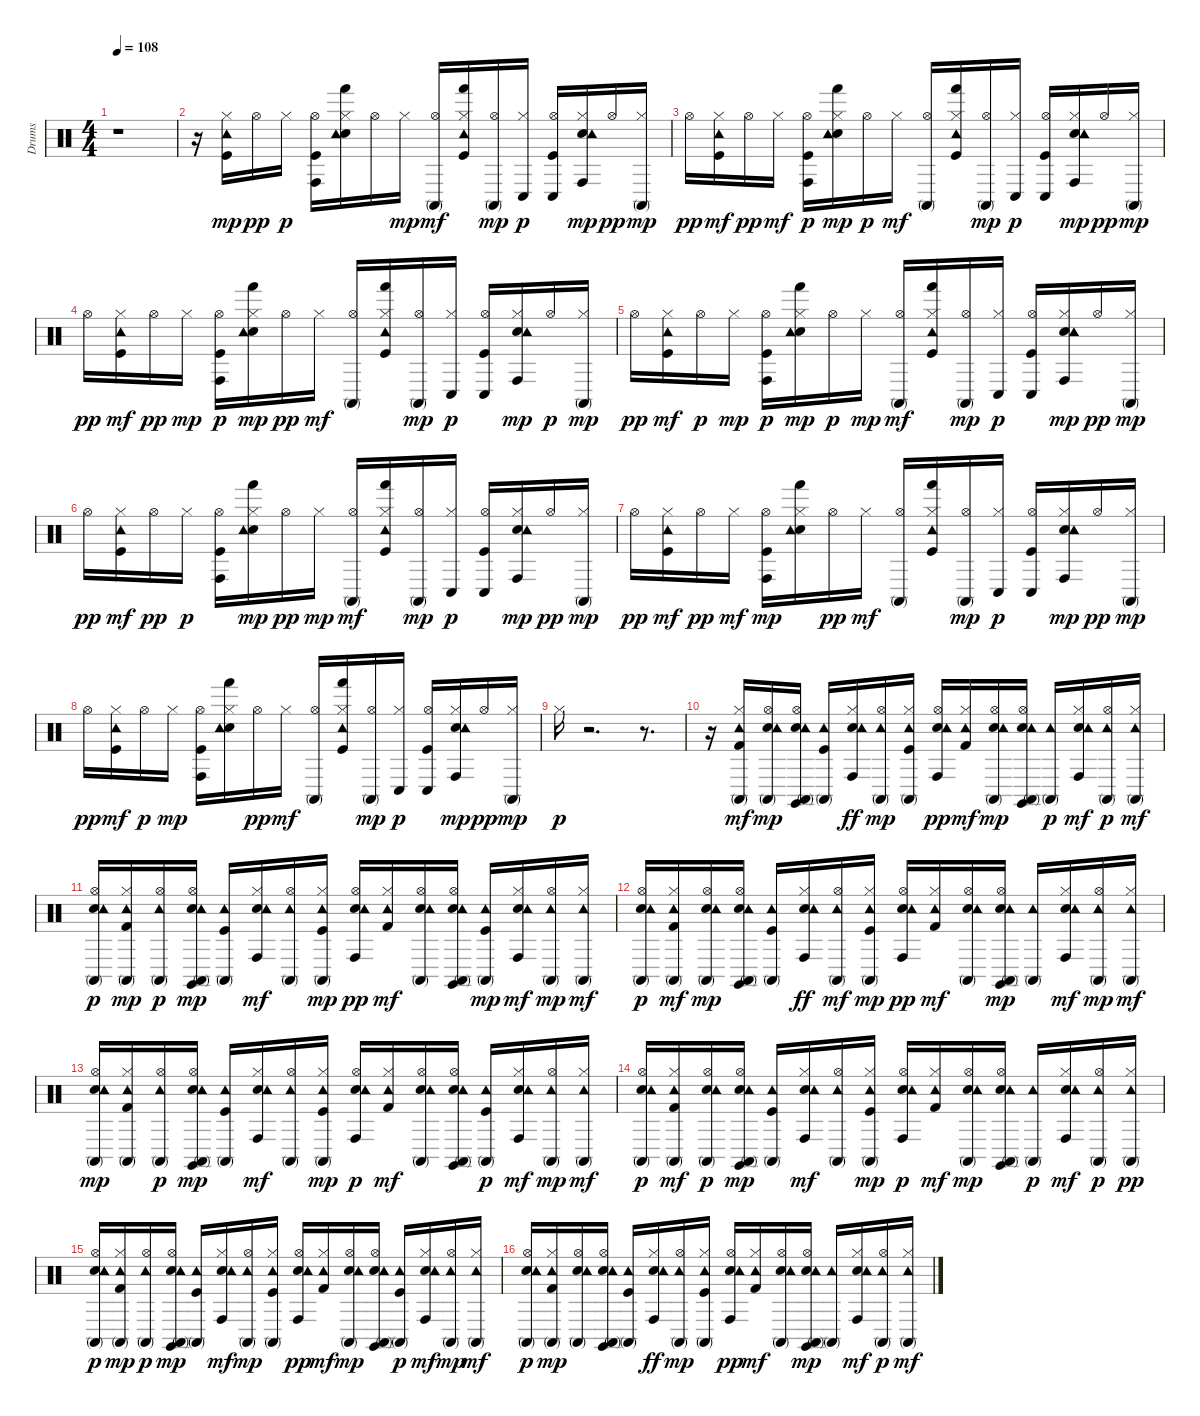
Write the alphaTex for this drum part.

\track ("Drums" "Drums") {instrument percussion}
\staff {score}
\articulation defaults
\ts (4 4)
\tempo 108
\clef neutral
\ks c
r.1{dy p} |
r.16 ("Kick (hit)" "Hi-Hat (closed)" "Tambourine (hit)").16{dy mp} "Hi-Hat (open)".16{dy pp} "Hi-Hat (closed)".16{dy p} ("Kick (hit)" "Hi-Hat (open)" "Conga high (hit)").16 ("Electric Snare (hit)" "Hi-Hat (closed)" "Tambourine (hit)" "Hand (hit)").16 "Hi-Hat (open)".16 "Hi-Hat (closed)".16{dy mp} ("Hi-Hat (open)" "Conga high (mute)").16{dy mf} ("Kick (hit)" "Hi-Hat (closed)" "Tambourine (hit)" "Hand (hit)").16 ("Hi-Hat (open)" "Conga high (mute)").16{dy mp} ("Hi-Hat (closed)" "Conga low (hit)").16{dy p} ("Kick (hit)" "Hi-Hat (open)" "Conga low (hit)").16 ("Electric Snare (hit)" "Hi-Hat (closed)" "Tambourine (hit)" "Conga high (hit)").16{dy mp} "Hi-Hat (open)".16{dy pp} ("Hi-Hat (closed)" "Conga high (mute)").16{dy mp} |
"Hi-Hat (open)".16{dy pp} ("Kick (hit)" "Hi-Hat (closed)" "Tambourine (hit)").16{dy mf} "Hi-Hat (open)".16{dy pp} "Hi-Hat (closed)".16{dy mf} ("Kick (hit)" "Hi-Hat (open)" "Conga high (hit)").16{dy p} ("Electric Snare (hit)" "Hi-Hat (closed)" "Tambourine (hit)" "Hand (hit)").16{dy mp} "Hi-Hat (open)".16{dy p} "Hi-Hat (closed)".16{dy mf} ("Hi-Hat (open)" "Conga high (mute)").16 ("Kick (hit)" "Hi-Hat (closed)" "Tambourine (hit)" "Hand (hit)").16 ("Hi-Hat (open)" "Conga high (mute)").16{dy mp} ("Hi-Hat (closed)" "Conga low (hit)").16{dy p} ("Kick (hit)" "Hi-Hat (open)" "Conga low (hit)").16 ("Electric Snare (hit)" "Hi-Hat (closed)" "Tambourine (hit)" "Conga high (hit)").16{dy mp} "Hi-Hat (open)".16{dy pp} ("Hi-Hat (closed)" "Conga high (mute)").16{dy mp} |
"Hi-Hat (open)".16{dy pp} ("Kick (hit)" "Hi-Hat (closed)" "Tambourine (hit)").16{dy mf} "Hi-Hat (open)".16{dy pp} "Hi-Hat (closed)".16{dy mp} ("Kick (hit)" "Hi-Hat (open)" "Conga high (hit)").16{dy p} ("Electric Snare (hit)" "Hi-Hat (closed)" "Tambourine (hit)" "Hand (hit)").16{dy mp} "Hi-Hat (open)".16{dy pp} "Hi-Hat (closed)".16{dy mf} ("Hi-Hat (open)" "Conga high (mute)").16 ("Kick (hit)" "Hi-Hat (closed)" "Tambourine (hit)" "Hand (hit)").16 ("Hi-Hat (open)" "Conga high (mute)").16{dy mp} ("Hi-Hat (closed)" "Conga low (hit)").16{dy p} ("Kick (hit)" "Hi-Hat (open)" "Conga low (hit)").16 ("Electric Snare (hit)" "Hi-Hat (closed)" "Tambourine (hit)" "Conga high (hit)").16{dy mp} "Hi-Hat (open)".16{dy p} ("Hi-Hat (closed)" "Conga high (mute)").16{dy mp} |
"Hi-Hat (open)".16{dy pp} ("Kick (hit)" "Hi-Hat (closed)" "Tambourine (hit)").16{dy mf} "Hi-Hat (open)".16{dy p} "Hi-Hat (closed)".16{dy mp} ("Kick (hit)" "Hi-Hat (open)" "Conga high (hit)").16{dy p} ("Electric Snare (hit)" "Hi-Hat (closed)" "Tambourine (hit)" "Hand (hit)").16{dy mp} "Hi-Hat (open)".16{dy p} "Hi-Hat (closed)".16{dy mp} ("Hi-Hat (open)" "Conga high (mute)").16{dy mf} ("Kick (hit)" "Hi-Hat (closed)" "Tambourine (hit)" "Hand (hit)").16 ("Hi-Hat (open)" "Conga high (mute)").16{dy mp} ("Hi-Hat (closed)" "Conga low (hit)").16{dy p} ("Kick (hit)" "Hi-Hat (open)" "Conga low (hit)").16 ("Electric Snare (hit)" "Hi-Hat (closed)" "Tambourine (hit)" "Conga high (hit)").16{dy mp} "Hi-Hat (open)".16{dy pp} ("Hi-Hat (closed)" "Conga high (mute)").16{dy mp} |
"Hi-Hat (open)".16{dy pp} ("Kick (hit)" "Hi-Hat (closed)" "Tambourine (hit)").16{dy mf} "Hi-Hat (open)".16{dy pp} "Hi-Hat (closed)".16{dy p} ("Kick (hit)" "Hi-Hat (open)" "Conga high (hit)").16 ("Electric Snare (hit)" "Hi-Hat (closed)" "Tambourine (hit)" "Hand (hit)").16{dy mp} "Hi-Hat (open)".16{dy pp} "Hi-Hat (closed)".16{dy mp} ("Hi-Hat (open)" "Conga high (mute)").16{dy mf} ("Kick (hit)" "Hi-Hat (closed)" "Tambourine (hit)" "Hand (hit)").16 ("Hi-Hat (open)" "Conga high (mute)").16{dy mp} ("Hi-Hat (closed)" "Conga low (hit)").16{dy p} ("Kick (hit)" "Hi-Hat (open)" "Conga low (hit)").16 ("Electric Snare (hit)" "Hi-Hat (closed)" "Tambourine (hit)" "Conga high (hit)").16{dy mp} "Hi-Hat (open)".16{dy pp} ("Hi-Hat (closed)" "Conga high (mute)").16{dy mp} |
"Hi-Hat (open)".16{dy pp} ("Kick (hit)" "Hi-Hat (closed)" "Tambourine (hit)").16{dy mf} "Hi-Hat (open)".16{dy pp} "Hi-Hat (closed)".16{dy mf} ("Kick (hit)" "Hi-Hat (open)" "Conga high (hit)").16{dy mp} ("Electric Snare (hit)" "Hi-Hat (closed)" "Tambourine (hit)" "Hand (hit)").16 "Hi-Hat (open)".16{dy pp} "Hi-Hat (closed)".16{dy mf} ("Hi-Hat (open)" "Conga high (mute)").16 ("Kick (hit)" "Hi-Hat (closed)" "Tambourine (hit)" "Hand (hit)").16 ("Hi-Hat (open)" "Conga high (mute)").16{dy mp} ("Hi-Hat (closed)" "Conga low (hit)").16{dy p} ("Kick (hit)" "Hi-Hat (open)" "Conga low (hit)").16 ("Electric Snare (hit)" "Hi-Hat (closed)" "Tambourine (hit)" "Conga high (hit)").16{dy mp} "Hi-Hat (open)".16{dy pp} ("Hi-Hat (closed)" "Conga high (mute)").16{dy mp} |
"Hi-Hat (open)".16{dy pp} ("Kick (hit)" "Hi-Hat (closed)" "Tambourine (hit)").16{dy mf} "Hi-Hat (open)".16{dy p} "Hi-Hat (closed)".16{dy mp} ("Kick (hit)" "Hi-Hat (open)" "Conga high (hit)").16 ("Electric Snare (hit)" "Hi-Hat (closed)" "Tambourine (hit)" "Hand (hit)").16 "Hi-Hat (open)".16{dy pp} "Hi-Hat (closed)".16{dy mf} ("Hi-Hat (open)" "Conga high (mute)").16 ("Kick (hit)" "Hi-Hat (closed)" "Tambourine (hit)" "Hand (hit)").16 ("Hi-Hat (open)" "Conga high (mute)").16{dy mp} ("Hi-Hat (closed)" "Conga low (hit)").16{dy p} ("Kick (hit)" "Hi-Hat (open)" "Conga low (hit)").16 ("Electric Snare (hit)" "Hi-Hat (closed)" "Tambourine (hit)" "Conga high (hit)").16{dy mp} "Hi-Hat (open)".16{dy pp} ("Hi-Hat (closed)" "Conga high (mute)").16{dy mp} |
"Hi-Hat (closed)".16{dy p} r.2{d} r.8{d} |
r.16 ("Kick (hit) 2" "Hi-Hat (closed)" "Tambourine (hit)" "Conga high (mute)").16{dy mf} ("Snare (hit) 2" "Hi-Hat (open)" "Tambourine (hit)" "Conga high (mute)").16{dy mp} ("Snare (hit) 2" "Hi-Hat (open)" "Tambourine (hit)" "Conga high (mute)" "Claves (hit)").16 ("Kick (hit)" "Tambourine (hit)" "Conga high (mute)").16 ("Snare (hit) 2" "Hi-Hat (closed)" "Tambourine (hit)" "Conga high (hit)").16{dy ff} ("Hi-Hat (open)" "Tambourine (hit)" "Conga high (mute)").16{dy mp} ("Kick (hit)" "Hi-Hat (closed)" "Tambourine (hit)" "Conga high (mute)").16 ("Snare (hit) 2" "Hi-Hat (open)" "Tambourine (hit)" "Conga high (hit)").16{dy pp} ("Kick (hit) 2" "Hi-Hat (closed)" "Tambourine (hit)").16{dy mf} ("Snare (hit) 2" "Hi-Hat (open)" "Tambourine (hit)" "Conga high (mute)").16{dy mp} ("Snare (hit) 2" "Hi-Hat (open)" "Tambourine (hit)" "Conga high (mute)" "Claves (hit)").16 ("Tambourine (hit)" "Conga high (mute)").16{dy p} ("Snare (hit) 2" "Hi-Hat (closed)" "Tambourine (hit)" "Conga high (hit)").16{dy mf} ("Hi-Hat (open)" "Tambourine (hit)" "Conga high (mute)").16{dy p} ("Hi-Hat (closed)" "Tambourine (hit)" "Conga high (mute)").16{dy mf} |
("Snare (hit) 2" "Hi-Hat (open)" "Tambourine (hit)" "Conga high (mute)").16{dy p} ("Kick (hit) 2" "Hi-Hat (closed)" "Tambourine (hit)" "Conga high (mute)").16{dy mp} ("Hi-Hat (open)" "Tambourine (hit)" "Conga high (mute)").16{dy p} ("Snare (hit) 2" "Hi-Hat (open)" "Tambourine (hit)" "Conga high (mute)" "Claves (hit)").16{dy mp} ("Kick (hit)" "Tambourine (hit)" "Conga high (mute)").16 ("Snare (hit) 2" "Hi-Hat (closed)" "Tambourine (hit)" "Conga high (hit)").16{dy mf} ("Hi-Hat (open)" "Tambourine (hit)" "Conga high (mute)").16 ("Kick (hit)" "Hi-Hat (closed)" "Tambourine (hit)" "Conga high (mute)").16{dy mp} ("Snare (hit) 2" "Hi-Hat (open)" "Tambourine (hit)" "Conga high (hit)").16{dy pp} ("Kick (hit) 2" "Hi-Hat (closed)" "Tambourine (hit)").16{dy mf} ("Snare (hit) 2" "Hi-Hat (open)" "Tambourine (hit)" "Conga high (mute)").16 ("Snare (hit) 2" "Hi-Hat (open)" "Tambourine (hit)" "Conga high (mute)" "Claves (hit)").16 ("Kick (hit)" "Tambourine (hit)" "Conga high (mute)").16{dy mp} ("Snare (hit) 2" "Hi-Hat (closed)" "Tambourine (hit)" "Conga high (hit)").16{dy mf} ("Hi-Hat (open)" "Tambourine (hit)" "Conga high (mute)").16{dy mp} ("Hi-Hat (closed)" "Tambourine (hit)" "Conga high (mute)").16{dy mf} |
("Snare (hit) 2" "Hi-Hat (open)" "Tambourine (hit)" "Conga high (mute)").16{dy p} ("Kick (hit) 2" "Hi-Hat (closed)" "Tambourine (hit)" "Conga high (mute)").16{dy mf} ("Snare (hit) 2" "Hi-Hat (open)" "Tambourine (hit)" "Conga high (mute)").16{dy mp} ("Snare (hit) 2" "Hi-Hat (open)" "Tambourine (hit)" "Conga high (mute)" "Claves (hit)").16 ("Kick (hit)" "Tambourine (hit)" "Conga high (mute)").16 ("Snare (hit) 2" "Hi-Hat (closed)" "Tambourine (hit)" "Conga high (hit)").16{dy ff} ("Hi-Hat (open)" "Tambourine (hit)" "Conga high (mute)").16{dy mf} ("Kick (hit)" "Hi-Hat (closed)" "Tambourine (hit)" "Conga high (mute)").16{dy mp} ("Snare (hit) 2" "Hi-Hat (open)" "Tambourine (hit)" "Conga high (hit)").16{dy pp} ("Kick (hit) 2" "Hi-Hat (closed)" "Tambourine (hit)").16{dy mf} ("Snare (hit) 2" "Hi-Hat (open)" "Tambourine (hit)" "Conga high (mute)").16 ("Snare (hit) 2" "Hi-Hat (open)" "Tambourine (hit)" "Conga high (mute)" "Claves (hit)").16{dy mp} ("Tambourine (hit)" "Conga high (mute)").16 ("Snare (hit) 2" "Hi-Hat (closed)" "Tambourine (hit)" "Conga high (hit)").16{dy mf} ("Hi-Hat (open)" "Tambourine (hit)" "Conga high (mute)").16{dy mp} ("Hi-Hat (closed)" "Tambourine (hit)" "Conga high (mute)").16{dy mf} |
("Snare (hit) 2" "Hi-Hat (open)" "Tambourine (hit)" "Conga high (mute)").16{dy mp} ("Kick (hit) 2" "Hi-Hat (closed)" "Tambourine (hit)" "Conga high (mute)").16 ("Hi-Hat (open)" "Tambourine (hit)" "Conga high (mute)").16{dy p} ("Snare (hit) 2" "Hi-Hat (open)" "Tambourine (hit)" "Conga high (mute)" "Claves (hit)").16{dy mp} ("Kick (hit)" "Tambourine (hit)" "Conga high (mute)").16 ("Snare (hit) 2" "Hi-Hat (closed)" "Tambourine (hit)" "Conga high (hit)").16{dy mf} ("Hi-Hat (open)" "Tambourine (hit)" "Conga high (mute)").16 ("Kick (hit)" "Hi-Hat (closed)" "Tambourine (hit)" "Conga high (mute)").16{dy mp} ("Snare (hit) 2" "Hi-Hat (open)" "Tambourine (hit)" "Conga high (hit)").16{dy p} ("Kick (hit) 2" "Hi-Hat (closed)" "Tambourine (hit)").16{dy mf} ("Snare (hit) 2" "Hi-Hat (open)" "Tambourine (hit)" "Conga high (mute)").16 ("Snare (hit) 2" "Hi-Hat (open)" "Tambourine (hit)" "Conga high (mute)" "Claves (hit)").16 ("Kick (hit)" "Tambourine (hit)" "Conga high (mute)").16{dy p} ("Snare (hit) 2" "Hi-Hat (closed)" "Tambourine (hit)" "Conga high (hit)").16{dy mf} ("Hi-Hat (open)" "Tambourine (hit)" "Conga high (mute)").16{dy mp} ("Hi-Hat (closed)" "Tambourine (hit)" "Conga high (mute)").16{dy mf} |
("Snare (hit) 2" "Hi-Hat (open)" "Tambourine (hit)" "Conga high (mute)").16{dy p} ("Kick (hit) 2" "Hi-Hat (closed)" "Tambourine (hit)" "Conga high (mute)").16{dy mf} ("Snare (hit) 2" "Hi-Hat (open)" "Tambourine (hit)" "Conga high (mute)").16{dy p} ("Snare (hit) 2" "Hi-Hat (open)" "Tambourine (hit)" "Conga high (mute)" "Claves (hit)").16{dy mp} ("Kick (hit)" "Tambourine (hit)" "Conga high (mute)").16 ("Snare (hit) 2" "Hi-Hat (closed)" "Tambourine (hit)" "Conga high (hit)").16{dy mf} ("Hi-Hat (open)" "Tambourine (hit)" "Conga high (mute)").16 ("Kick (hit)" "Hi-Hat (closed)" "Tambourine (hit)" "Conga high (mute)").16{dy mp} ("Snare (hit) 2" "Hi-Hat (open)" "Tambourine (hit)" "Conga high (hit)").16{dy p} ("Kick (hit) 2" "Hi-Hat (closed)" "Tambourine (hit)").16{dy mf} ("Snare (hit) 2" "Hi-Hat (open)" "Tambourine (hit)" "Conga high (mute)").16{dy mp} ("Snare (hit) 2" "Hi-Hat (open)" "Tambourine (hit)" "Conga high (mute)" "Claves (hit)").16 ("Tambourine (hit)" "Conga high (mute)").16{dy p} ("Snare (hit) 2" "Hi-Hat (closed)" "Tambourine (hit)" "Conga high (hit)").16{dy mf} ("Hi-Hat (open)" "Tambourine (hit)" "Conga high (mute)").16{dy p} ("Hi-Hat (closed)" "Tambourine (hit)" "Conga high (mute)").16{dy pp} |
("Snare (hit) 2" "Hi-Hat (open)" "Tambourine (hit)" "Conga high (mute)").16{dy p} ("Kick (hit) 2" "Hi-Hat (closed)" "Tambourine (hit)" "Conga high (mute)").16{dy mp} ("Hi-Hat (open)" "Tambourine (hit)" "Conga high (mute)").16{dy p} ("Snare (hit) 2" "Hi-Hat (open)" "Tambourine (hit)" "Conga high (mute)" "Claves (hit)").16{dy mp} ("Kick (hit)" "Tambourine (hit)" "Conga high (mute)").16 ("Snare (hit) 2" "Hi-Hat (closed)" "Tambourine (hit)" "Conga high (hit)").16{dy mf} ("Hi-Hat (open)" "Tambourine (hit)" "Conga high (mute)").16{dy mp} ("Kick (hit)" "Hi-Hat (closed)" "Tambourine (hit)" "Conga high (mute)").16 ("Snare (hit) 2" "Hi-Hat (open)" "Tambourine (hit)" "Conga high (hit)").16{dy pp} ("Kick (hit) 2" "Hi-Hat (closed)" "Tambourine (hit)").16{dy mf} ("Snare (hit) 2" "Hi-Hat (open)" "Tambourine (hit)" "Conga high (mute)").16{dy mp} ("Snare (hit) 2" "Hi-Hat (open)" "Tambourine (hit)" "Conga high (mute)" "Claves (hit)").16 ("Kick (hit)" "Tambourine (hit)" "Conga high (mute)").16{dy p} ("Snare (hit) 2" "Hi-Hat (closed)" "Tambourine (hit)" "Conga high (hit)").16{dy mf} ("Hi-Hat (open)" "Tambourine (hit)" "Conga high (mute)").16{dy mp} ("Hi-Hat (closed)" "Tambourine (hit)" "Conga high (mute)").16{dy mf} |
("Snare (hit) 2" "Hi-Hat (open)" "Tambourine (hit)" "Conga high (mute)").16{dy p} ("Kick (hit) 2" "Hi-Hat (closed)" "Tambourine (hit)" "Conga high (mute)").16{dy mp} ("Snare (hit) 2" "Hi-Hat (open)" "Tambourine (hit)" "Conga high (mute)").16 ("Snare (hit) 2" "Hi-Hat (open)" "Tambourine (hit)" "Conga high (mute)" "Claves (hit)").16 ("Kick (hit)" "Tambourine (hit)" "Conga high (mute)").16 ("Snare (hit) 2" "Hi-Hat (closed)" "Tambourine (hit)" "Conga high (hit)").16{dy ff} ("Hi-Hat (open)" "Tambourine (hit)" "Conga high (mute)").16{dy mp} ("Kick (hit)" "Hi-Hat (closed)" "Tambourine (hit)" "Conga high (mute)").16 ("Snare (hit) 2" "Hi-Hat (open)" "Tambourine (hit)" "Conga high (hit)").16{dy pp} ("Kick (hit) 2" "Hi-Hat (closed)" "Tambourine (hit)").16{dy mf} ("Snare (hit) 2" "Hi-Hat (open)" "Tambourine (hit)" "Conga high (mute)").16 ("Snare (hit) 2" "Hi-Hat (open)" "Tambourine (hit)" "Conga high (mute)" "Claves (hit)").16{dy mp} ("Tambourine (hit)" "Conga high (mute)").16 ("Snare (hit) 2" "Hi-Hat (closed)" "Tambourine (hit)" "Conga high (hit)").16{dy mf} ("Hi-Hat (open)" "Tambourine (hit)" "Conga high (mute)").16{dy p} ("Hi-Hat (closed)" "Tambourine (hit)" "Conga high (mute)").16{dy mf}
